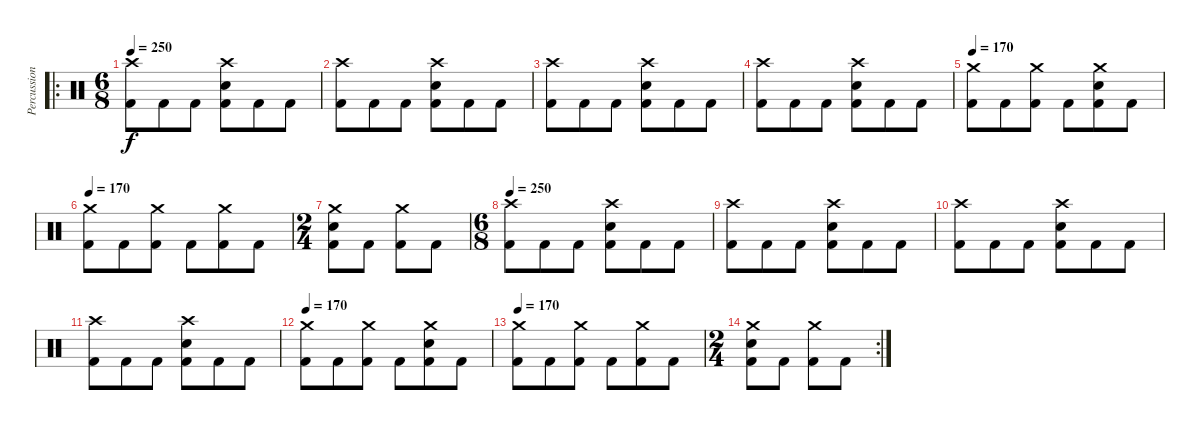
\track ("Percussion" "Percussion") {instrument percussion}
\staff {score}
\articulation defaults
\ro
\ts (6 8)
\tempo 250
\clef neutral
\ks c
("Crash high (hit)" "Kick (hit) 2").8{dy f} "Kick (hit) 2".8 "Kick (hit) 2".8 ("Crash high (hit)" "Electric Snare (hit)" "Kick (hit) 2").8 "Kick (hit) 2".8 "Kick (hit) 2".8 |
("Crash high (hit)" "Kick (hit) 2").8 "Kick (hit) 2".8 "Kick (hit) 2".8 ("Crash high (hit)" "Electric Snare (hit)" "Kick (hit) 2").8 "Kick (hit) 2".8 "Kick (hit) 2".8 |
("Crash high (hit)" "Kick (hit) 2").8 "Kick (hit) 2".8 "Kick (hit) 2".8 ("Crash high (hit)" "Electric Snare (hit)" "Kick (hit) 2").8 "Kick (hit) 2".8 "Kick (hit) 2".8 |
("Crash high (hit)" "Kick (hit) 2").8 "Kick (hit) 2".8 "Kick (hit) 2".8 ("Crash high (hit)" "Electric Snare (hit)" "Kick (hit) 2").8 "Kick (hit) 2".8 "Kick (hit) 2".8 |
\tempo 170
("Crash medium (hit)" "Kick (hit) 2").8 "Kick (hit) 2".8 ("Crash medium (hit)" "Kick (hit) 2").8 "Kick (hit) 2".8 ("Crash medium (hit)" "Electric Snare (hit)" "Kick (hit) 2").8 "Kick (hit) 2".8 |
\tempo 170
("Crash medium (hit)" "Kick (hit) 2").8 "Kick (hit) 2".8 ("Crash medium (hit)" "Kick (hit) 2").8 "Kick (hit) 2".8 ("Crash medium (hit)" "Kick (hit) 2").8 "Kick (hit) 2".8 |
\ts (2 4)
("Crash medium (hit)" "Electric Snare (hit)" "Kick (hit) 2").8 "Kick (hit) 2".8 ("Crash medium (hit)" "Kick (hit) 2").8 "Kick (hit) 2".8 |
\ts (6 8)
\tempo 250
("Crash high (hit)" "Kick (hit) 2").8 "Kick (hit) 2".8 "Kick (hit) 2".8 ("Crash high (hit)" "Electric Snare (hit)" "Kick (hit) 2").8 "Kick (hit) 2".8 "Kick (hit) 2".8 |
("Crash high (hit)" "Kick (hit) 2").8 "Kick (hit) 2".8 "Kick (hit) 2".8 ("Crash high (hit)" "Electric Snare (hit)" "Kick (hit) 2").8 "Kick (hit) 2".8 "Kick (hit) 2".8 |
("Crash high (hit)" "Kick (hit) 2").8 "Kick (hit) 2".8 "Kick (hit) 2".8 ("Crash high (hit)" "Electric Snare (hit)" "Kick (hit) 2").8 "Kick (hit) 2".8 "Kick (hit) 2".8 |
("Crash high (hit)" "Kick (hit) 2").8 "Kick (hit) 2".8 "Kick (hit) 2".8 ("Crash high (hit)" "Electric Snare (hit)" "Kick (hit) 2").8 "Kick (hit) 2".8 "Kick (hit) 2".8 |
\tempo 170
("Crash medium (hit)" "Kick (hit) 2").8 "Kick (hit) 2".8 ("Crash medium (hit)" "Kick (hit) 2").8 "Kick (hit) 2".8 ("Crash medium (hit)" "Electric Snare (hit)" "Kick (hit) 2").8 "Kick (hit) 2".8 |
\tempo 170
("Crash medium (hit)" "Kick (hit) 2").8 "Kick (hit) 2".8 ("Crash medium (hit)" "Kick (hit) 2").8 "Kick (hit) 2".8 ("Crash medium (hit)" "Kick (hit) 2").8 "Kick (hit) 2".8 |
\rc 2
\ts (2 4)
("Crash medium (hit)" "Electric Snare (hit)" "Kick (hit) 2").8 "Kick (hit) 2".8 ("Crash medium (hit)" "Kick (hit) 2").8 "Kick (hit) 2".8
